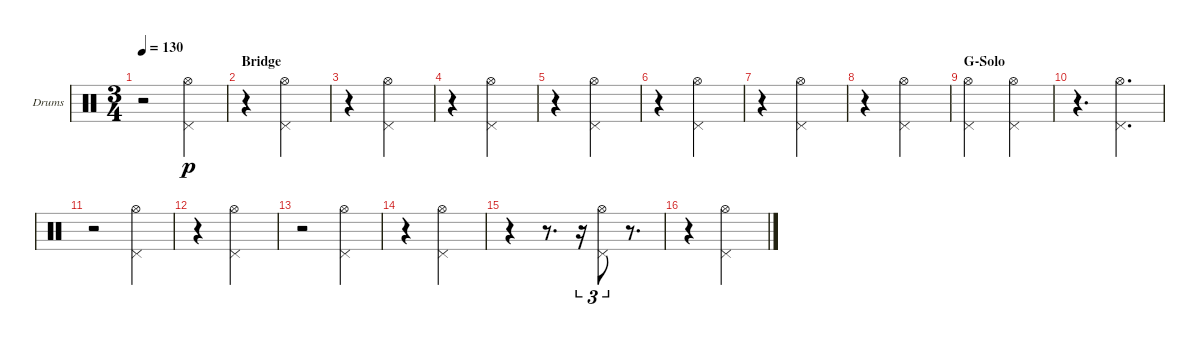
\bracketExtendMode groupsimilarinstruments
\firstSystemTrackNameOrientation horizontal
\otherSystemsTrackNameOrientation horizontal
\track ("HH" "Drums") {instrument percussion}
\staff {score}
\articulation defaults
\ts (3 4)
\tempo 130
\clef neutral
\ks c
r.2{dy p} ("Pedal Hi-Hat (hit)" "Hi-Hat (open)").4 |
\section ("" "Bridge")
r.4 ("Pedal Hi-Hat (hit)" "Hi-Hat (open)").2 |
r.4 ("Pedal Hi-Hat (hit)" "Hi-Hat (open)").2 |
r.4 ("Pedal Hi-Hat (hit)" "Hi-Hat (open)").2 |
r.4 ("Pedal Hi-Hat (hit)" "Hi-Hat (open)").2 |
r.4 ("Pedal Hi-Hat (hit)" "Hi-Hat (open)").2 |
r.4 ("Pedal Hi-Hat (hit)" "Hi-Hat (open)").2 |
r.4 ("Pedal Hi-Hat (hit)" "Hi-Hat (open)").2 |
\section ("" "G-Solo")
("Pedal Hi-Hat (hit)" "Hi-Hat (open)").2 ("Pedal Hi-Hat (hit)" "Hi-Hat (open)").4 |
r.4{d} ("Pedal Hi-Hat (hit)" "Hi-Hat (open)").4{d} |
r.2 ("Pedal Hi-Hat (hit)" "Hi-Hat (open)").4 |
r.4 ("Pedal Hi-Hat (hit)" "Hi-Hat (open)").2 |
r.2 ("Pedal Hi-Hat (hit)" "Hi-Hat (open)").4 |
r.4 ("Pedal Hi-Hat (hit)" "Hi-Hat (open)").2 |
r.4 r.8{d} r.16{tu (3 2)} ("Pedal Hi-Hat (hit)" "Hi-Hat (open)").8{tu (3 2)} r.8{d} |
r.4 ("Pedal Hi-Hat (hit)" "Hi-Hat (open)").2
